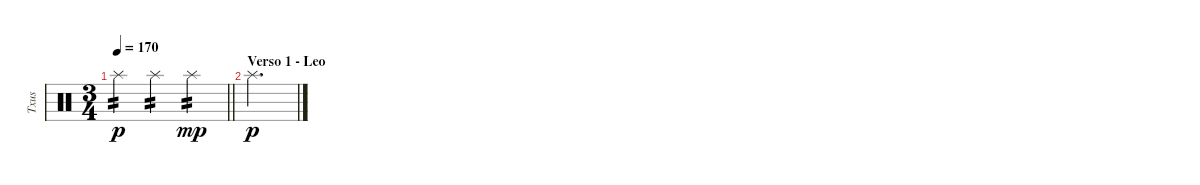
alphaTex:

\track ("Txus" "Txus") {instrument percussion}
\staff {score}
\articulation defaults
\ts (3 4)
\tempo 170
\clef neutral
\barLineRight lightlight
\ks c "Splash (hit)".4{tp 2 dy p} "Splash (hit)".4{tp 2} "Splash (hit)".4{tp 2 dy mp}
|
\section ("" "Verso 1 - Leo")
"Splash (hit)".2{d dy p}
